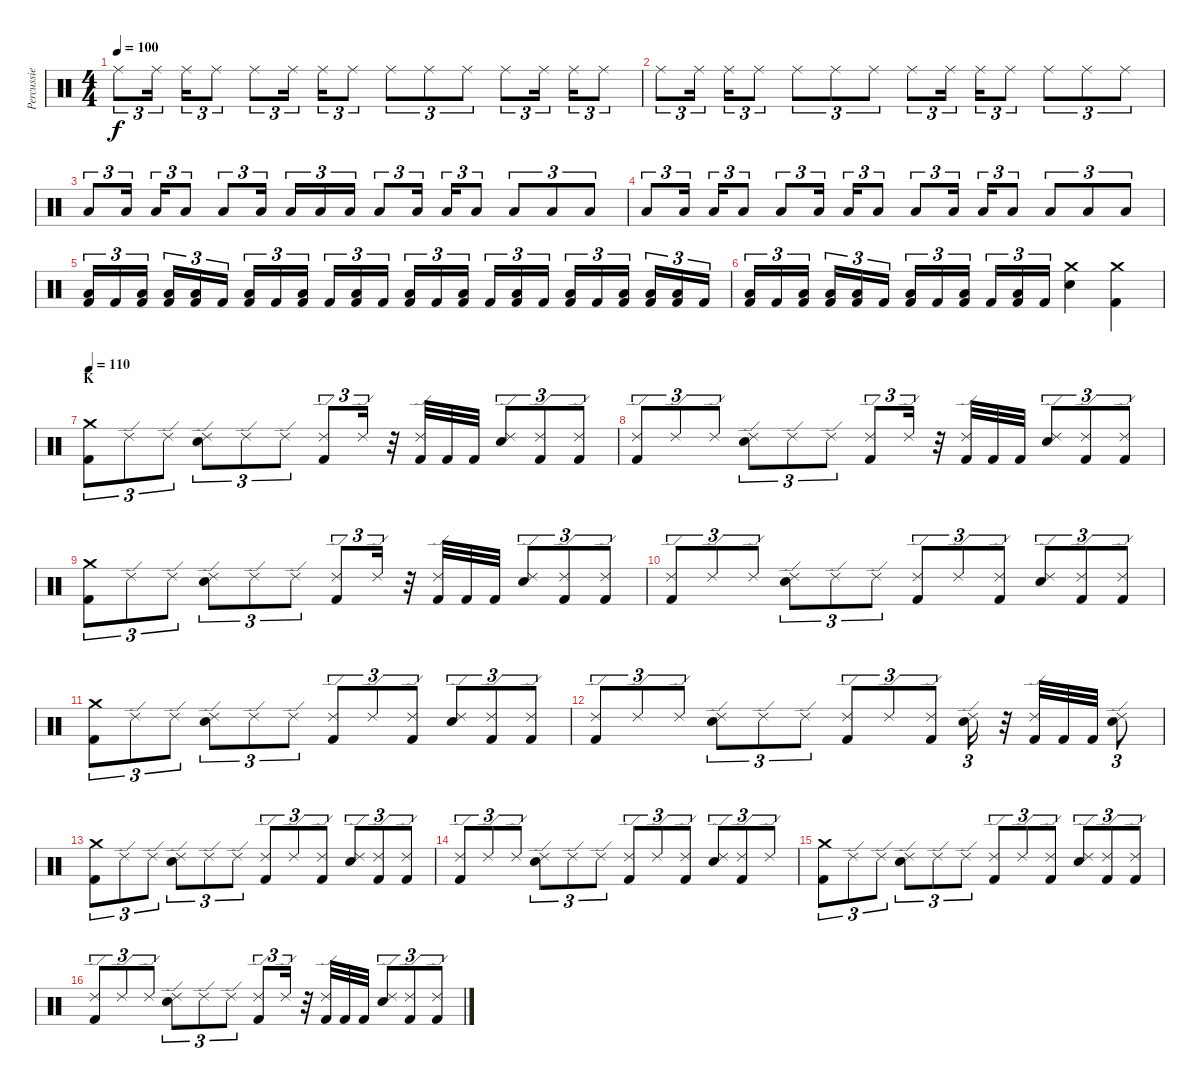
\track ("Percussie" "Percussie") {instrument percussion}
\staff {score}
\articulation defaults
\ts (4 4)
\tempo 100
\clef neutral
\ks c "Ride (middle)".8{tu (3 2) dy f} "Ride (middle)".16{tu (3 2)} "Ride (middle)".16{tu (3 2)} "Ride (middle)".8{tu (3 2)} "Ride (middle)".8{tu (3 2)} "Ride (middle)".16{tu (3 2)} "Ride (middle)".16{tu (3 2)} "Ride (middle)".8{tu (3 2)} "Ride (middle)".8{tu (3 2)} "Ride (middle)".8{tu (3 2)} "Ride (middle)".8{tu (3 2)} "Ride (middle)".8{tu (3 2)} "Ride (middle)".16{tu (3 2)} "Ride (middle)".16{tu (3 2)} "Ride (middle)".8{tu (3 2)}
|
"Ride (middle)".8{tu (3 2)} "Ride (middle)".16{tu (3 2)} "Ride (middle)".16{tu (3 2)} "Ride (middle)".8{tu (3 2)} "Ride (middle)".8{tu (3 2)} "Ride (middle)".8{tu (3 2)} "Ride (middle)".8{tu (3 2)} "Ride (middle)".8{tu (3 2)} "Ride (middle)".16{tu (3 2)} "Ride (middle)".16{tu (3 2)} "Ride (middle)".8{tu (3 2)} "Ride (middle)".8{tu (3 2)} "Ride (middle)".8{tu (3 2)} "Ride (middle)".8{tu (3 2)} |
"Low Floor Tom (hit)".8{tu (3 2)} "Low Floor Tom (hit)".16{tu (3 2)} "Low Floor Tom (hit)".16{tu (3 2)} "Low Floor Tom (hit)".8{tu (3 2)} "Low Floor Tom (hit)".8{tu (3 2)} "Low Floor Tom (hit)".16{tu (3 2)} "Low Floor Tom (hit)".16{tu (3 2)} "Low Floor Tom (hit)".16{tu (3 2)} "Low Floor Tom (hit)".16{tu (3 2)} "Low Floor Tom (hit)".8{tu (3 2)} "Low Floor Tom (hit)".16{tu (3 2)} "Low Floor Tom (hit)".16{tu (3 2)} "Low Floor Tom (hit)".8{tu (3 2)} "Low Floor Tom (hit)".8{tu (3 2)} "Low Floor Tom (hit)".8{tu (3 2)} "Low Floor Tom (hit)".8{tu (3 2)} |
"Low Floor Tom (hit)".8{tu (3 2)} "Low Floor Tom (hit)".16{tu (3 2)} "Low Floor Tom (hit)".16{tu (3 2)} "Low Floor Tom (hit)".8{tu (3 2)} "Low Floor Tom (hit)".8{tu (3 2)} "Low Floor Tom (hit)".16{tu (3 2)} "Low Floor Tom (hit)".16{tu (3 2)} "Low Floor Tom (hit)".8{tu (3 2)} "Low Floor Tom (hit)".8{tu (3 2)} "Low Floor Tom (hit)".16{tu (3 2)} "Low Floor Tom (hit)".16{tu (3 2)} "Low Floor Tom (hit)".8{tu (3 2)} "Low Floor Tom (hit)".8{tu (3 2)} "Low Floor Tom (hit)".8{tu (3 2)} "Low Floor Tom (hit)".8{tu (3 2)} |
("Low Floor Tom (hit)" "Kick (hit) 2").16{tu (3 2)} "Kick (hit) 2".16{tu (3 2)} ("Low Floor Tom (hit)" "Kick (hit) 2").16{tu (3 2)} ("Low Floor Tom (hit)" "Kick (hit) 2").16{tu (3 2)} ("Low Floor Tom (hit)" "Kick (hit) 2").16{tu (3 2)} "Kick (hit) 2".16{tu (3 2)} ("Low Floor Tom (hit)" "Kick (hit) 2").16{tu (3 2)} "Kick (hit) 2".16{tu (3 2)} ("Low Floor Tom (hit)" "Kick (hit) 2").16{tu (3 2)} "Kick (hit) 2".16{tu (3 2)} ("Low Floor Tom (hit)" "Kick (hit) 2").16{tu (3 2)} "Kick (hit) 2".16{tu (3 2)} ("Low Floor Tom (hit)" "Kick (hit) 2").16{tu (3 2)} "Kick (hit) 2".16{tu (3 2)} ("Low Floor Tom (hit)" "Kick (hit) 2").16{tu (3 2)} "Kick (hit) 2".16{tu (3 2)} ("Low Floor Tom (hit)" "Kick (hit) 2").16{tu (3 2)} "Kick (hit) 2".16{tu (3 2)} ("Low Floor Tom (hit)" "Kick (hit) 2").16{tu (3 2)} "Kick (hit) 2".16{tu (3 2)} ("Low Floor Tom (hit)" "Kick (hit) 2").16{tu (3 2)} ("Low Floor Tom (hit)" "Kick (hit) 2").16{tu (3 2)} ("Low Floor Tom (hit)" "Kick (hit) 2").16{tu (3 2)} "Kick (hit) 2".16{tu (3 2)} |
("Low Floor Tom (hit)" "Kick (hit) 2").16{tu (3 2)} "Kick (hit) 2".16{tu (3 2)} ("Low Floor Tom (hit)" "Kick (hit) 2").16{tu (3 2)} ("Low Floor Tom (hit)" "Kick (hit) 2").16{tu (3 2)} ("Low Floor Tom (hit)" "Kick (hit) 2").16{tu (3 2)} "Kick (hit) 2".16{tu (3 2)} ("Low Floor Tom (hit)" "Kick (hit) 2").16{tu (3 2)} "Kick (hit) 2".16{tu (3 2)} ("Low Floor Tom (hit)" "Kick (hit) 2").16{tu (3 2)} "Kick (hit) 2".16{tu (3 2)} ("Low Floor Tom (hit)" "Kick (hit) 2").16{tu (3 2)} "Kick (hit) 2".16{tu (3 2)} ("Crash medium (hit)" "Electric Snare (hit)").4 ("Crash medium (hit)" "Kick (hit) 2").4 |
\section ("" "K")
\tempo 110
("Crash medium (hit)" "Kick (hit) 2").8{tu (3 2)} "Ride (edge) 2".8{tu (3 2)} "Ride (edge) 2".8{tu (3 2)} ("Ride (edge) 2" "Electric Snare (hit)").8{tu (3 2)} "Ride (edge) 2".8{tu (3 2)} "Ride (edge) 2".8{tu (3 2)} ("Ride (edge) 2" "Kick (hit) 2").8{tu (3 2)} "Ride (edge) 2".16{tu (3 2)} r.32 ("Ride (edge) 2" "Kick (hit) 2").32 "Kick (hit) 2".32 "Kick (hit) 2".32 ("Ride (edge) 2" "Electric Snare (hit)").8{tu (3 2)} ("Ride (edge) 2" "Kick (hit) 2").8{tu (3 2)} ("Ride (edge) 2" "Kick (hit) 2").8{tu (3 2)} |
("Ride (edge) 2" "Kick (hit) 2").8{tu (3 2)} "Ride (edge) 2".8{tu (3 2)} "Ride (edge) 2".8{tu (3 2)} ("Ride (edge) 2" "Electric Snare (hit)").8{tu (3 2)} "Ride (edge) 2".8{tu (3 2)} "Ride (edge) 2".8{tu (3 2)} ("Ride (edge) 2" "Kick (hit) 2").8{tu (3 2)} "Ride (edge) 2".16{tu (3 2)} r.32 ("Ride (edge) 2" "Kick (hit) 2").32 "Kick (hit) 2".32 "Kick (hit) 2".32 ("Ride (edge) 2" "Electric Snare (hit)").8{tu (3 2)} ("Ride (edge) 2" "Kick (hit) 2").8{tu (3 2)} ("Ride (edge) 2" "Kick (hit) 2").8{tu (3 2)} |
("Crash medium (hit)" "Kick (hit) 2").8{tu (3 2)} "Ride (edge) 2".8{tu (3 2)} "Ride (edge) 2".8{tu (3 2)} ("Ride (edge) 2" "Electric Snare (hit)").8{tu (3 2)} "Ride (edge) 2".8{tu (3 2)} "Ride (edge) 2".8{tu (3 2)} ("Ride (edge) 2" "Kick (hit) 2").8{tu (3 2)} "Ride (edge) 2".16{tu (3 2)} r.32 ("Ride (edge) 2" "Kick (hit) 2").32 "Kick (hit) 2".32 "Kick (hit) 2".32 ("Ride (edge) 2" "Electric Snare (hit)").8{tu (3 2)} ("Ride (edge) 2" "Kick (hit) 2").8{tu (3 2)} ("Ride (edge) 2" "Kick (hit) 2").8{tu (3 2)} |
("Ride (edge) 2" "Kick (hit) 2").8{tu (3 2)} "Ride (edge) 2".8{tu (3 2)} "Ride (edge) 2".8{tu (3 2)} ("Ride (edge) 2" "Electric Snare (hit)").8{tu (3 2)} "Ride (edge) 2".8{tu (3 2)} "Ride (edge) 2".8{tu (3 2)} ("Ride (edge) 2" "Kick (hit) 2").8{tu (3 2)} "Ride (edge) 2".8{tu (3 2)} ("Ride (edge) 2" "Kick (hit) 2").8{tu (3 2)} ("Ride (edge) 2" "Electric Snare (hit)").8{tu (3 2)} ("Ride (edge) 2" "Kick (hit) 2").8{tu (3 2)} ("Ride (edge) 2" "Kick (hit) 2").8{tu (3 2)} |
("Crash medium (hit)" "Kick (hit) 2").8{tu (3 2)} "Ride (edge) 2".8{tu (3 2)} "Ride (edge) 2".8{tu (3 2)} ("Ride (edge) 2" "Electric Snare (hit)").8{tu (3 2)} "Ride (edge) 2".8{tu (3 2)} "Ride (edge) 2".8{tu (3 2)} ("Ride (edge) 2" "Kick (hit) 2").8{tu (3 2)} "Ride (edge) 2".8{tu (3 2)} ("Ride (edge) 2" "Kick (hit) 2").8{tu (3 2)} ("Ride (edge) 2" "Electric Snare (hit)").8{tu (3 2)} ("Ride (edge) 2" "Kick (hit) 2").8{tu (3 2)} ("Ride (edge) 2" "Kick (hit) 2").8{tu (3 2)} |
("Ride (edge) 2" "Kick (hit) 2").8{tu (3 2)} "Ride (edge) 2".8{tu (3 2)} "Ride (edge) 2".8{tu (3 2)} ("Ride (edge) 2" "Electric Snare (hit)").8{tu (3 2)} "Ride (edge) 2".8{tu (3 2)} "Ride (edge) 2".8{tu (3 2)} ("Ride (edge) 2" "Kick (hit) 2").8{tu (3 2)} "Ride (edge) 2".8{tu (3 2)} ("Ride (edge) 2" "Kick (hit) 2").8{tu (3 2)} ("Ride (edge) 2" "Electric Snare (hit)").16{tu (3 2)} r.32 ("Ride (edge) 2" "Kick (hit) 2").32 "Kick (hit) 2".32 "Kick (hit) 2".32 ("Ride (edge) 2" "Electric Snare (hit)").8{tu (3 2)} |
("Crash medium (hit)" "Kick (hit) 2").8{tu (3 2)} "Ride (edge) 2".8{tu (3 2)} "Ride (edge) 2".8{tu (3 2)} ("Ride (edge) 2" "Electric Snare (hit)").8{tu (3 2)} "Ride (edge) 2".8{tu (3 2)} "Ride (edge) 2".8{tu (3 2)} ("Ride (edge) 2" "Kick (hit) 2").8{tu (3 2)} "Ride (edge) 2".8{tu (3 2)} ("Ride (edge) 2" "Kick (hit) 2").8{tu (3 2)} ("Ride (edge) 2" "Electric Snare (hit)").8{tu (3 2)} ("Ride (edge) 2" "Kick (hit) 2").8{tu (3 2)} ("Ride (edge) 2" "Kick (hit) 2").8{tu (3 2)} |
("Ride (edge) 2" "Kick (hit) 2").8{tu (3 2)} "Ride (edge) 2".8{tu (3 2)} "Ride (edge) 2".8{tu (3 2)} ("Ride (edge) 2" "Electric Snare (hit)").8{tu (3 2)} "Ride (edge) 2".8{tu (3 2)} "Ride (edge) 2".8{tu (3 2)} ("Ride (edge) 2" "Kick (hit) 2").8{tu (3 2)} "Ride (edge) 2".8{tu (3 2)} ("Ride (edge) 2" "Kick (hit) 2").8{tu (3 2)} ("Ride (edge) 2" "Electric Snare (hit)").8{tu (3 2)} ("Ride (edge) 2" "Kick (hit) 2").8{tu (3 2)} "Ride (edge) 2".8{tu (3 2)} |
("Crash medium (hit)" "Kick (hit) 2").8{tu (3 2)} "Ride (edge) 2".8{tu (3 2)} "Ride (edge) 2".8{tu (3 2)} ("Ride (edge) 2" "Electric Snare (hit)").8{tu (3 2)} "Ride (edge) 2".8{tu (3 2)} "Ride (edge) 2".8{tu (3 2)} ("Ride (edge) 2" "Kick (hit) 2").8{tu (3 2)} "Ride (edge) 2".8{tu (3 2)} ("Ride (edge) 2" "Kick (hit) 2").8{tu (3 2)} ("Ride (edge) 2" "Electric Snare (hit)").8{tu (3 2)} ("Ride (edge) 2" "Kick (hit) 2").8{tu (3 2)} ("Ride (edge) 2" "Kick (hit) 2").8{tu (3 2)} |
("Ride (edge) 2" "Kick (hit) 2").8{tu (3 2)} "Ride (edge) 2".8{tu (3 2)} "Ride (edge) 2".8{tu (3 2)} ("Ride (edge) 2" "Electric Snare (hit)").8{tu (3 2)} "Ride (edge) 2".8{tu (3 2)} "Ride (edge) 2".8{tu (3 2)} ("Ride (edge) 2" "Kick (hit) 2").8{tu (3 2)} "Ride (edge) 2".16{tu (3 2)} r.32 ("Ride (edge) 2" "Kick (hit) 2").32 "Kick (hit) 2".32 "Kick (hit) 2".32 ("Ride (edge) 2" "Electric Snare (hit)").8{tu (3 2)} ("Ride (edge) 2" "Kick (hit) 2").8{tu (3 2)} ("Ride (edge) 2" "Kick (hit) 2").8{tu (3 2)}
